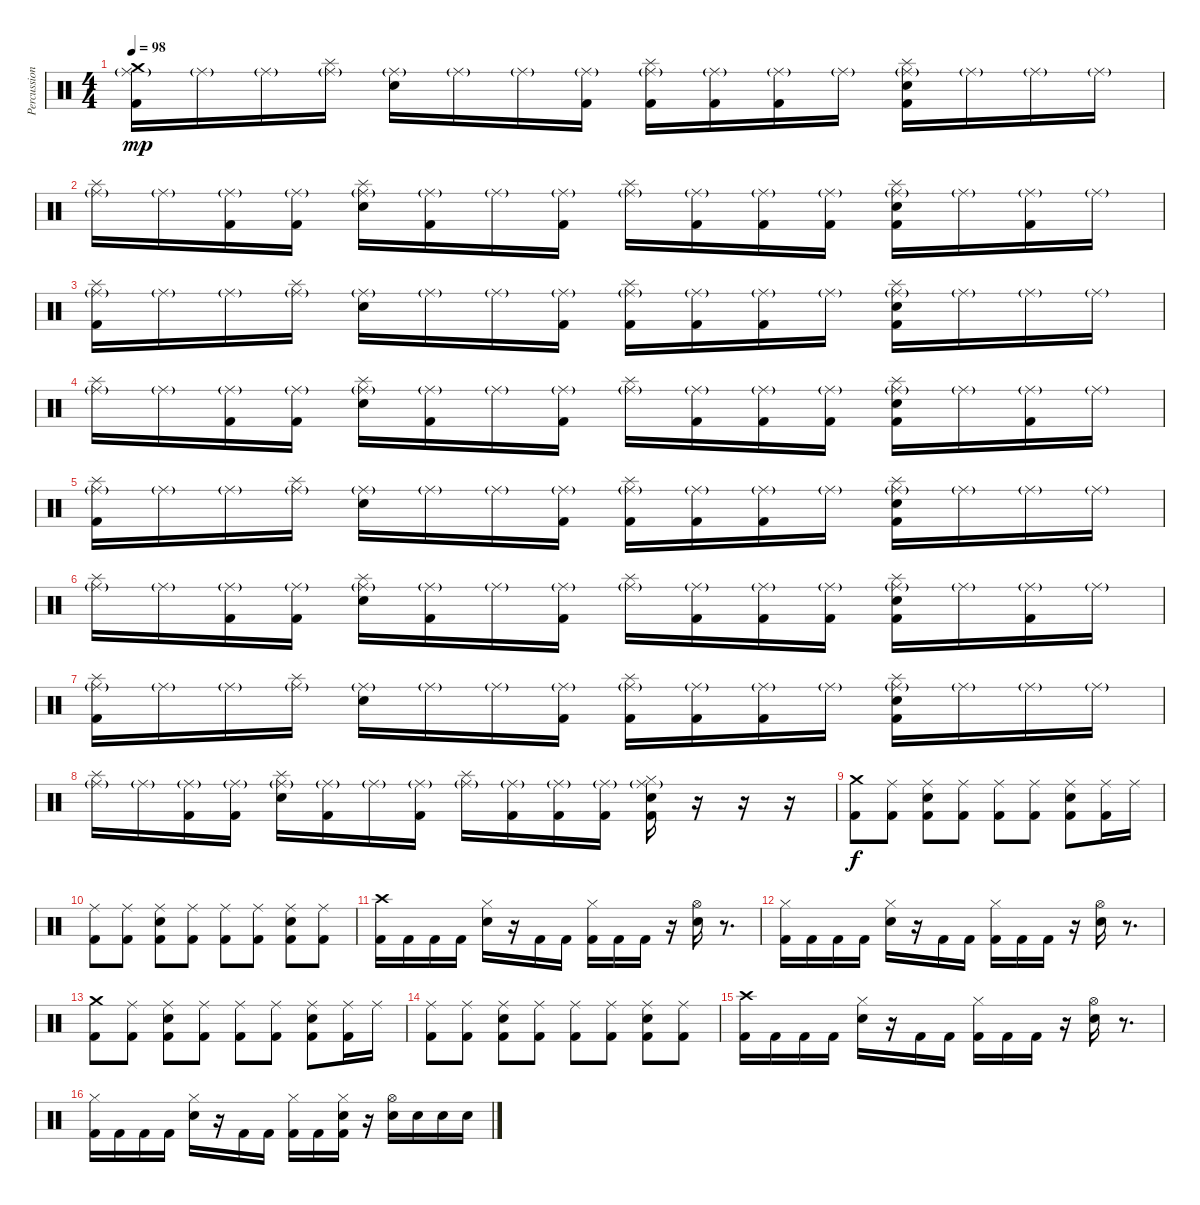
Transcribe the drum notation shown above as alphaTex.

\track ("Percussion" "Percussion") {instrument percussion}
\staff {score}
\articulation defaults
\ts (4 4)
\tempo 98
\clef neutral
\ks c
("Crash medium (hit)" "Ride (middle)"{g} "Kick (hit) 2").16{dy mp} "Ride (middle)"{g}.16 "Ride (middle)"{g}.16 ("Splash (hit)" "Ride (middle)"{g}).16 ("Ride (middle)"{g} "Electric Snare (hit)").16 "Ride (middle)"{g}.16 "Ride (middle)"{g}.16 ("Ride (middle)"{g} "Kick (hit) 2").16 ("Splash (hit)" "Ride (middle)"{g} "Kick (hit) 2").16 ("Ride (middle)"{g} "Kick (hit) 2").16 ("Ride (middle)"{g} "Kick (hit) 2").16 "Ride (middle)"{g}.16 ("Splash (hit)" "Ride (middle)"{g} "Electric Snare (hit)" "Kick (hit) 2").16 "Ride (middle)"{g}.16 "Ride (middle)"{g}.16 "Ride (middle)"{g}.16 |
("Splash (hit)" "Ride (middle)"{g}).16 "Ride (middle)"{g}.16 ("Ride (middle)"{g} "Kick (hit) 2").16 ("Ride (middle)"{g} "Kick (hit) 2").16 ("Splash (hit)" "Ride (middle)"{g} "Electric Snare (hit)").16 ("Ride (middle)"{g} "Kick (hit) 2").16 "Ride (middle)"{g}.16 ("Ride (middle)"{g} "Kick (hit) 2").16 ("Splash (hit)" "Ride (middle)"{g}).16 ("Ride (middle)"{g} "Kick (hit) 2").16 ("Ride (middle)"{g} "Kick (hit) 2").16 ("Ride (middle)"{g} "Kick (hit) 2").16 ("Splash (hit)" "Ride (middle)"{g} "Electric Snare (hit)" "Kick (hit) 2").16 "Ride (middle)"{g}.16 ("Ride (middle)"{g} "Kick (hit) 2").16 "Ride (middle)"{g}.16 |
("Splash (hit)" "Ride (middle)"{g} "Kick (hit) 2").16 "Ride (middle)"{g}.16 "Ride (middle)"{g}.16 ("Splash (hit)" "Ride (middle)"{g}).16 ("Ride (middle)"{g} "Electric Snare (hit)").16 "Ride (middle)"{g}.16 "Ride (middle)"{g}.16 ("Ride (middle)"{g} "Kick (hit) 2").16 ("Splash (hit)" "Ride (middle)"{g} "Kick (hit) 2").16 ("Ride (middle)"{g} "Kick (hit) 2").16 ("Ride (middle)"{g} "Kick (hit) 2").16 "Ride (middle)"{g}.16 ("Splash (hit)" "Ride (middle)"{g} "Electric Snare (hit)" "Kick (hit) 2").16 "Ride (middle)"{g}.16 "Ride (middle)"{g}.16 "Ride (middle)"{g}.16 |
("Splash (hit)" "Ride (middle)"{g}).16 "Ride (middle)"{g}.16 ("Ride (middle)"{g} "Kick (hit) 2").16 ("Ride (middle)"{g} "Kick (hit) 2").16 ("Splash (hit)" "Ride (middle)"{g} "Electric Snare (hit)").16 ("Ride (middle)"{g} "Kick (hit) 2").16 "Ride (middle)"{g}.16 ("Ride (middle)"{g} "Kick (hit) 2").16 ("Splash (hit)" "Ride (middle)"{g}).16 ("Ride (middle)"{g} "Kick (hit) 2").16 ("Ride (middle)"{g} "Kick (hit) 2").16 ("Ride (middle)"{g} "Kick (hit) 2").16 ("Splash (hit)" "Ride (middle)"{g} "Electric Snare (hit)" "Kick (hit) 2").16 "Ride (middle)"{g}.16 ("Ride (middle)"{g} "Kick (hit) 2").16 "Ride (middle)"{g}.16 |
("Splash (hit)" "Ride (middle)"{g} "Kick (hit) 2").16 "Ride (middle)"{g}.16 "Ride (middle)"{g}.16 ("Splash (hit)" "Ride (middle)"{g}).16 ("Ride (middle)"{g} "Electric Snare (hit)").16 "Ride (middle)"{g}.16 "Ride (middle)"{g}.16 ("Ride (middle)"{g} "Kick (hit) 2").16 ("Splash (hit)" "Ride (middle)"{g} "Kick (hit) 2").16 ("Ride (middle)"{g} "Kick (hit) 2").16 ("Ride (middle)"{g} "Kick (hit) 2").16 "Ride (middle)"{g}.16 ("Splash (hit)" "Ride (middle)"{g} "Electric Snare (hit)" "Kick (hit) 2").16 "Ride (middle)"{g}.16 "Ride (middle)"{g}.16 "Ride (middle)"{g}.16 |
("Splash (hit)" "Ride (middle)"{g}).16 "Ride (middle)"{g}.16 ("Ride (middle)"{g} "Kick (hit) 2").16 ("Ride (middle)"{g} "Kick (hit) 2").16 ("Splash (hit)" "Ride (middle)"{g} "Electric Snare (hit)").16 ("Ride (middle)"{g} "Kick (hit) 2").16 "Ride (middle)"{g}.16 ("Ride (middle)"{g} "Kick (hit) 2").16 ("Splash (hit)" "Ride (middle)"{g}).16 ("Ride (middle)"{g} "Kick (hit) 2").16 ("Ride (middle)"{g} "Kick (hit) 2").16 ("Ride (middle)"{g} "Kick (hit) 2").16 ("Splash (hit)" "Ride (middle)"{g} "Electric Snare (hit)" "Kick (hit) 2").16 "Ride (middle)"{g}.16 ("Ride (middle)"{g} "Kick (hit) 2").16 "Ride (middle)"{g}.16 |
("Splash (hit)" "Ride (middle)"{g} "Kick (hit) 2").16 "Ride (middle)"{g}.16 "Ride (middle)"{g}.16 ("Splash (hit)" "Ride (middle)"{g}).16 ("Ride (middle)"{g} "Electric Snare (hit)").16 "Ride (middle)"{g}.16 "Ride (middle)"{g}.16 ("Ride (middle)"{g} "Kick (hit) 2").16 ("Splash (hit)" "Ride (middle)"{g} "Kick (hit) 2").16 ("Ride (middle)"{g} "Kick (hit) 2").16 ("Ride (middle)"{g} "Kick (hit) 2").16 "Ride (middle)"{g}.16 ("Splash (hit)" "Ride (middle)"{g} "Electric Snare (hit)" "Kick (hit) 2").16 "Ride (middle)"{g}.16 "Ride (middle)"{g}.16 "Ride (middle)"{g}.16 |
("Splash (hit)" "Ride (middle)"{g}).16 "Ride (middle)"{g}.16 ("Ride (middle)"{g} "Kick (hit) 2").16 ("Ride (middle)"{g} "Kick (hit) 2").16 ("Splash (hit)" "Ride (middle)"{g} "Electric Snare (hit)").16 ("Ride (middle)"{g} "Kick (hit) 2").16 "Ride (middle)"{g}.16 ("Ride (middle)"{g} "Kick (hit) 2").16 ("Splash (hit)" "Ride (middle)"{g}).16 ("Ride (middle)"{g} "Kick (hit) 2").16 ("Ride (middle)"{g} "Kick (hit) 2").16 ("Ride (middle)"{g} "Kick (hit) 2").16 ("Hi-Hat (closed)" "Ride (middle)"{g} "Electric Snare (hit)" "Kick (hit) 2").16 r.16 r.16 r.16 |
("Crash medium (hit)" "Kick (hit) 2").8{dy f} ("Ride (middle)" "Kick (hit) 2").8 ("Ride (middle)" "Electric Snare (hit)" "Kick (hit) 2").8 ("Ride (middle)" "Kick (hit) 2").8 ("Ride (middle)" "Kick (hit) 2").8 ("Ride (middle)" "Kick (hit) 2").8 ("Ride (middle)" "Electric Snare (hit)" "Kick (hit) 2").8 ("Ride (middle)" "Kick (hit) 2").16 "Ride (middle)".16 |
("Ride (middle)" "Kick (hit) 2").8 ("Ride (middle)" "Kick (hit) 2").8 ("Ride (middle)" "Electric Snare (hit)" "Kick (hit) 2").8 ("Ride (middle)" "Kick (hit) 2").8 ("Ride (middle)" "Kick (hit) 2").8 ("Ride (middle)" "Kick (hit) 2").8 ("Ride (middle)" "Electric Snare (hit)" "Kick (hit) 2").8 ("Ride (middle)" "Kick (hit) 2").8 |
("Crash high (hit)" "Kick (hit) 2").16 "Kick (hit) 2".16 "Kick (hit) 2".16 "Kick (hit) 2".16 ("Hi-Hat (closed)" "Electric Snare (hit)").16 r.16 "Kick (hit) 2".16 "Kick (hit) 2".16 ("Hi-Hat (closed)" "Kick (hit) 2").16 "Kick (hit) 2".16 "Kick (hit) 2".16 r.16 ("Hi-Hat (open)" "Electric Snare (hit)").16 r.8{d} |
("Hi-Hat (closed)" "Kick (hit) 2").16 "Kick (hit) 2".16 "Kick (hit) 2".16 "Kick (hit) 2".16 ("Hi-Hat (closed)" "Electric Snare (hit)").16 r.16 "Kick (hit) 2".16 "Kick (hit) 2".16 ("Hi-Hat (closed)" "Kick (hit) 2").16 "Kick (hit) 2".16 "Kick (hit) 2".16 r.16 ("Hi-Hat (open)" "Electric Snare (hit)").16 r.8{d} |
("Crash medium (hit)" "Kick (hit) 2").8 ("Ride (middle)" "Kick (hit) 2").8 ("Ride (middle)" "Electric Snare (hit)" "Kick (hit) 2").8 ("Ride (middle)" "Kick (hit) 2").8 ("Ride (middle)" "Kick (hit) 2").8 ("Ride (middle)" "Kick (hit) 2").8 ("Ride (middle)" "Electric Snare (hit)" "Kick (hit) 2").8 ("Ride (middle)" "Kick (hit) 2").16 "Ride (middle)".16 |
("Ride (middle)" "Kick (hit) 2").8 ("Ride (middle)" "Kick (hit) 2").8 ("Ride (middle)" "Electric Snare (hit)" "Kick (hit) 2").8 ("Ride (middle)" "Kick (hit) 2").8 ("Ride (middle)" "Kick (hit) 2").8 ("Ride (middle)" "Kick (hit) 2").8 ("Ride (middle)" "Electric Snare (hit)" "Kick (hit) 2").8 ("Ride (middle)" "Kick (hit) 2").8 |
("Crash high (hit)" "Kick (hit) 2").16 "Kick (hit) 2".16 "Kick (hit) 2".16 "Kick (hit) 2".16 ("Hi-Hat (closed)" "Electric Snare (hit)").16 r.16 "Kick (hit) 2".16 "Kick (hit) 2".16 ("Hi-Hat (closed)" "Kick (hit) 2").16 "Kick (hit) 2".16 "Kick (hit) 2".16 r.16 ("Hi-Hat (open)" "Electric Snare (hit)").16 r.8{d} |
("Hi-Hat (closed)" "Kick (hit) 2").16 "Kick (hit) 2".16 "Kick (hit) 2".16 "Kick (hit) 2".16 ("Hi-Hat (closed)" "Electric Snare (hit)").16 r.16 "Kick (hit) 2".16 "Kick (hit) 2".16 ("Hi-Hat (closed)" "Kick (hit) 2").16 "Kick (hit) 2".16 ("Hi-Hat (closed)" "Electric Snare (hit)" "Kick (hit) 2").16 r.16 ("Hi-Hat (open)" "Electric Snare (hit)").16 "Electric Snare (hit)".16 "Electric Snare (hit)".16 "Electric Snare (hit)".16
